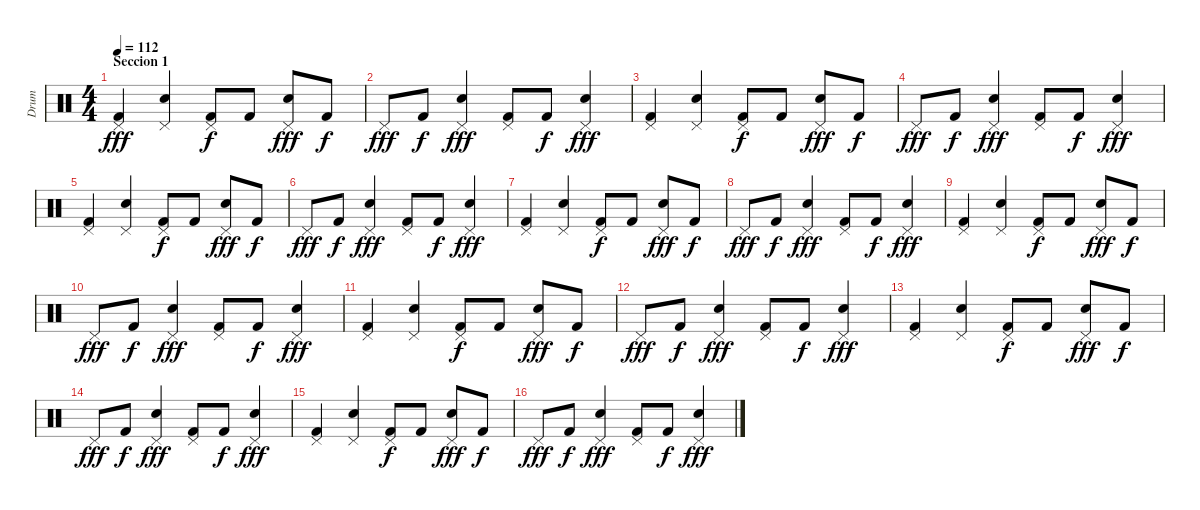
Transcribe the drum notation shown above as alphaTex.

\track ("Drum" "Drum") {instrument percussion}
\staff {score}
\articulation defaults
\ts (4 4)
\section ("" "Seccion 1")
\tempo 112
\clef neutral
\ks c
("Pedal Hi-Hat (hit)" "Kick (hit) 2").4{dy fff} ("Pedal Hi-Hat (hit)" "Electric Snare (hit)").4 ("Pedal Hi-Hat (hit)" "Kick (hit) 2").8{dy f} "Kick (hit) 2".8 ("Pedal Hi-Hat (hit)" "Electric Snare (hit)").8{dy fff} "Kick (hit) 2".8{dy f} |
"Pedal Hi-Hat (hit)".8{dy fff} "Kick (hit) 2".8{dy f} ("Pedal Hi-Hat (hit)" "Electric Snare (hit)").4{dy fff} ("Pedal Hi-Hat (hit)" "Kick (hit) 2").8 "Kick (hit) 2".8{dy f} ("Pedal Hi-Hat (hit)" "Electric Snare (hit)").4{dy fff} |
("Pedal Hi-Hat (hit)" "Kick (hit) 2").4 ("Pedal Hi-Hat (hit)" "Electric Snare (hit)").4 ("Pedal Hi-Hat (hit)" "Kick (hit) 2").8{dy f} "Kick (hit) 2".8 ("Pedal Hi-Hat (hit)" "Electric Snare (hit)").8{dy fff} "Kick (hit) 2".8{dy f} |
"Pedal Hi-Hat (hit)".8{dy fff} "Kick (hit) 2".8{dy f} ("Pedal Hi-Hat (hit)" "Electric Snare (hit)").4{dy fff} ("Pedal Hi-Hat (hit)" "Kick (hit) 2").8 "Kick (hit) 2".8{dy f} ("Pedal Hi-Hat (hit)" "Electric Snare (hit)").4{dy fff} |
("Pedal Hi-Hat (hit)" "Kick (hit) 2").4 ("Pedal Hi-Hat (hit)" "Electric Snare (hit)").4 ("Pedal Hi-Hat (hit)" "Kick (hit) 2").8{dy f} "Kick (hit) 2".8 ("Pedal Hi-Hat (hit)" "Electric Snare (hit)").8{dy fff} "Kick (hit) 2".8{dy f} |
"Pedal Hi-Hat (hit)".8{dy fff} "Kick (hit) 2".8{dy f} ("Pedal Hi-Hat (hit)" "Electric Snare (hit)").4{dy fff} ("Pedal Hi-Hat (hit)" "Kick (hit) 2").8 "Kick (hit) 2".8{dy f} ("Pedal Hi-Hat (hit)" "Electric Snare (hit)").4{dy fff} |
("Pedal Hi-Hat (hit)" "Kick (hit) 2").4 ("Pedal Hi-Hat (hit)" "Electric Snare (hit)").4 ("Pedal Hi-Hat (hit)" "Kick (hit) 2").8{dy f} "Kick (hit) 2".8 ("Pedal Hi-Hat (hit)" "Electric Snare (hit)").8{dy fff} "Kick (hit) 2".8{dy f} |
"Pedal Hi-Hat (hit)".8{dy fff} "Kick (hit) 2".8{dy f} ("Pedal Hi-Hat (hit)" "Electric Snare (hit)").4{dy fff} ("Pedal Hi-Hat (hit)" "Kick (hit) 2").8 "Kick (hit) 2".8{dy f} ("Pedal Hi-Hat (hit)" "Electric Snare (hit)").4{dy fff} |
("Pedal Hi-Hat (hit)" "Kick (hit) 2").4 ("Pedal Hi-Hat (hit)" "Electric Snare (hit)").4 ("Pedal Hi-Hat (hit)" "Kick (hit) 2").8{dy f} "Kick (hit) 2".8 ("Pedal Hi-Hat (hit)" "Electric Snare (hit)").8{dy fff} "Kick (hit) 2".8{dy f} |
"Pedal Hi-Hat (hit)".8{dy fff} "Kick (hit) 2".8{dy f} ("Pedal Hi-Hat (hit)" "Electric Snare (hit)").4{dy fff} ("Pedal Hi-Hat (hit)" "Kick (hit) 2").8 "Kick (hit) 2".8{dy f} ("Pedal Hi-Hat (hit)" "Electric Snare (hit)").4{dy fff} |
("Pedal Hi-Hat (hit)" "Kick (hit) 2").4 ("Pedal Hi-Hat (hit)" "Electric Snare (hit)").4 ("Pedal Hi-Hat (hit)" "Kick (hit) 2").8{dy f} "Kick (hit) 2".8 ("Pedal Hi-Hat (hit)" "Electric Snare (hit)").8{dy fff} "Kick (hit) 2".8{dy f} |
"Pedal Hi-Hat (hit)".8{dy fff} "Kick (hit) 2".8{dy f} ("Pedal Hi-Hat (hit)" "Electric Snare (hit)").4{dy fff} ("Pedal Hi-Hat (hit)" "Kick (hit) 2").8 "Kick (hit) 2".8{dy f} ("Pedal Hi-Hat (hit)" "Electric Snare (hit)").4{dy fff} |
("Pedal Hi-Hat (hit)" "Kick (hit) 2").4 ("Pedal Hi-Hat (hit)" "Electric Snare (hit)").4 ("Pedal Hi-Hat (hit)" "Kick (hit) 2").8{dy f} "Kick (hit) 2".8 ("Pedal Hi-Hat (hit)" "Electric Snare (hit)").8{dy fff} "Kick (hit) 2".8{dy f} |
"Pedal Hi-Hat (hit)".8{dy fff} "Kick (hit) 2".8{dy f} ("Pedal Hi-Hat (hit)" "Electric Snare (hit)").4{dy fff} ("Pedal Hi-Hat (hit)" "Kick (hit) 2").8 "Kick (hit) 2".8{dy f} ("Pedal Hi-Hat (hit)" "Electric Snare (hit)").4{dy fff} |
("Pedal Hi-Hat (hit)" "Kick (hit) 2").4 ("Pedal Hi-Hat (hit)" "Electric Snare (hit)").4 ("Pedal Hi-Hat (hit)" "Kick (hit) 2").8{dy f} "Kick (hit) 2".8 ("Pedal Hi-Hat (hit)" "Electric Snare (hit)").8{dy fff} "Kick (hit) 2".8{dy f} |
"Pedal Hi-Hat (hit)".8{dy fff} "Kick (hit) 2".8{dy f} ("Pedal Hi-Hat (hit)" "Electric Snare (hit)").4{dy fff} ("Pedal Hi-Hat (hit)" "Kick (hit) 2").8 "Kick (hit) 2".8{dy f} ("Pedal Hi-Hat (hit)" "Electric Snare (hit)").4{dy fff}
